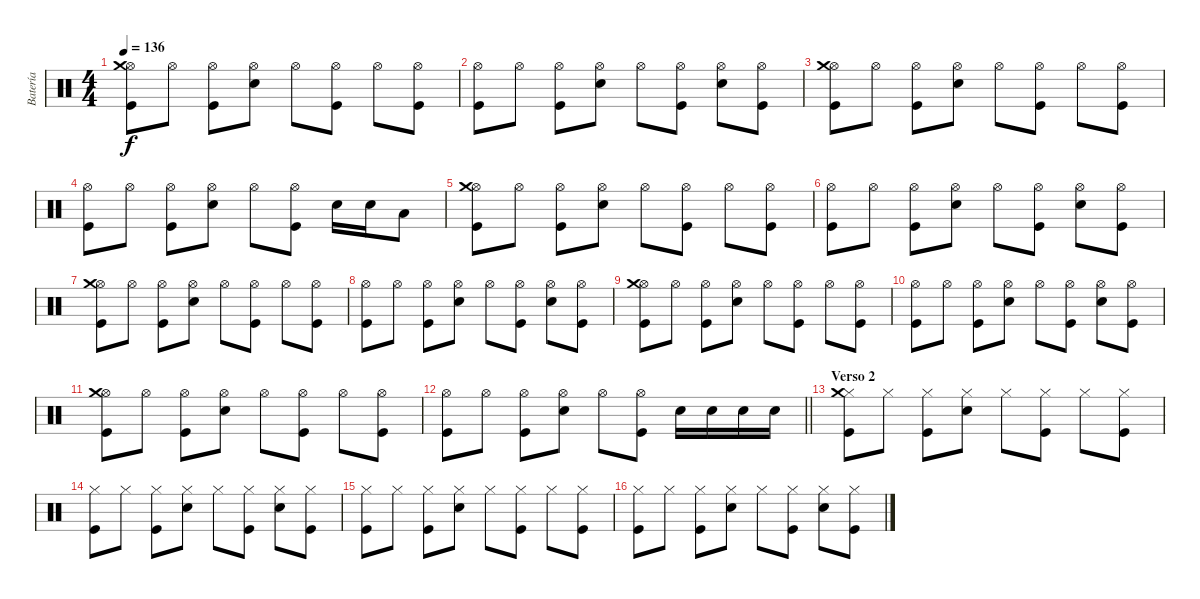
\track ("Batería" "Batería") {instrument percussion}
\staff {score}
\articulation defaults
\ts (4 4)
\tempo 136
\clef neutral
\ks c
("Hi-Hat (open)" "Crash medium (hit)" "Kick (hit)").8{dy f} "Hi-Hat (open)".8 ("Hi-Hat (open)" "Kick (hit)").8 ("Hi-Hat (open)" "Snare (hit) 2").8 "Hi-Hat (open)".8 ("Hi-Hat (open)" "Kick (hit)").8 "Hi-Hat (open)".8 ("Hi-Hat (open)" "Kick (hit)").8 |
("Hi-Hat (open)" "Kick (hit)").8 "Hi-Hat (open)".8 ("Hi-Hat (open)" "Kick (hit)").8 ("Hi-Hat (open)" "Snare (hit) 2").8 "Hi-Hat (open)".8 ("Hi-Hat (open)" "Kick (hit)").8 ("Hi-Hat (open)" "Snare (hit) 2").8 ("Hi-Hat (open)" "Kick (hit)").8 |
("Hi-Hat (open)" "Crash medium (hit)" "Kick (hit)").8 "Hi-Hat (open)".8 ("Hi-Hat (open)" "Kick (hit)").8 ("Hi-Hat (open)" "Snare (hit) 2").8 "Hi-Hat (open)".8 ("Hi-Hat (open)" "Kick (hit)").8 "Hi-Hat (open)".8 ("Hi-Hat (open)" "Kick (hit)").8 |
("Hi-Hat (open)" "Kick (hit)").8 "Hi-Hat (open)".8 ("Hi-Hat (open)" "Kick (hit)").8 ("Hi-Hat (open)" "Snare (hit) 2").8 "Hi-Hat (open)".8 ("Hi-Hat (open)" "Kick (hit)").8 "Snare (hit) 2".16 "Snare (hit) 2".16 "Low Tom (hit)".8 |
("Hi-Hat (open)" "Crash medium (hit)" "Kick (hit)").8 "Hi-Hat (open)".8 ("Hi-Hat (open)" "Kick (hit)").8 ("Hi-Hat (open)" "Snare (hit) 2").8 "Hi-Hat (open)".8 ("Hi-Hat (open)" "Kick (hit)").8 "Hi-Hat (open)".8 ("Hi-Hat (open)" "Kick (hit)").8 |
("Hi-Hat (open)" "Kick (hit)").8 "Hi-Hat (open)".8 ("Hi-Hat (open)" "Kick (hit)").8 ("Hi-Hat (open)" "Snare (hit) 2").8 "Hi-Hat (open)".8 ("Hi-Hat (open)" "Kick (hit)").8 ("Hi-Hat (open)" "Snare (hit) 2").8 ("Hi-Hat (open)" "Kick (hit)").8 |
("Hi-Hat (open)" "Crash medium (hit)" "Kick (hit)").8 "Hi-Hat (open)".8 ("Hi-Hat (open)" "Kick (hit)").8 ("Hi-Hat (open)" "Snare (hit) 2").8 "Hi-Hat (open)".8 ("Hi-Hat (open)" "Kick (hit)").8 "Hi-Hat (open)".8 ("Hi-Hat (open)" "Kick (hit)").8 |
("Hi-Hat (open)" "Kick (hit)").8 "Hi-Hat (open)".8 ("Hi-Hat (open)" "Kick (hit)").8 ("Hi-Hat (open)" "Snare (hit) 2").8 "Hi-Hat (open)".8 ("Hi-Hat (open)" "Kick (hit)").8 ("Hi-Hat (open)" "Snare (hit) 2").8 ("Hi-Hat (open)" "Kick (hit)").8 |
("Hi-Hat (open)" "Crash medium (hit)" "Kick (hit)").8 "Hi-Hat (open)".8 ("Hi-Hat (open)" "Kick (hit)").8 ("Hi-Hat (open)" "Snare (hit) 2").8 "Hi-Hat (open)".8 ("Hi-Hat (open)" "Kick (hit)").8 "Hi-Hat (open)".8 ("Hi-Hat (open)" "Kick (hit)").8 |
("Hi-Hat (open)" "Kick (hit)").8 "Hi-Hat (open)".8 ("Hi-Hat (open)" "Kick (hit)").8 ("Hi-Hat (open)" "Snare (hit) 2").8 "Hi-Hat (open)".8 ("Hi-Hat (open)" "Kick (hit)").8 ("Hi-Hat (open)" "Snare (hit) 2").8 ("Hi-Hat (open)" "Kick (hit)").8 |
("Hi-Hat (open)" "Crash medium (hit)" "Kick (hit)").8 "Hi-Hat (open)".8 ("Hi-Hat (open)" "Kick (hit)").8 ("Hi-Hat (open)" "Snare (hit) 2").8 "Hi-Hat (open)".8 ("Hi-Hat (open)" "Kick (hit)").8 "Hi-Hat (open)".8 ("Hi-Hat (open)" "Kick (hit)").8 |
\barLineRight lightlight
("Hi-Hat (open)" "Kick (hit)").8 "Hi-Hat (open)".8 ("Hi-Hat (open)" "Kick (hit)").8 ("Hi-Hat (open)" "Snare (hit) 2").8 "Hi-Hat (open)".8 ("Hi-Hat (open)" "Kick (hit)").8 "Snare (hit) 2".16 "Snare (hit) 2".16 "Snare (hit) 2".16 "Snare (hit) 2".16 |
\section ("" "Verso 2")
("Hi-Hat (closed)" "Crash medium (hit)" "Kick (hit)").8 "Hi-Hat (closed)".8 ("Hi-Hat (closed)" "Kick (hit)").8 ("Hi-Hat (closed)" "Snare (hit) 2").8 "Hi-Hat (closed)".8 ("Hi-Hat (closed)" "Kick (hit)").8 "Hi-Hat (closed)".8 ("Hi-Hat (closed)" "Kick (hit)").8 |
("Hi-Hat (closed)" "Kick (hit)").8 "Hi-Hat (closed)".8 ("Hi-Hat (closed)" "Kick (hit)").8 ("Hi-Hat (closed)" "Snare (hit) 2").8 "Hi-Hat (closed)".8 ("Hi-Hat (closed)" "Kick (hit)").8 ("Hi-Hat (closed)" "Snare (hit) 2").8 ("Hi-Hat (closed)" "Kick (hit)").8 |
("Hi-Hat (closed)" "Kick (hit)").8 "Hi-Hat (closed)".8 ("Hi-Hat (closed)" "Kick (hit)").8 ("Hi-Hat (closed)" "Snare (hit) 2").8 "Hi-Hat (closed)".8 ("Hi-Hat (closed)" "Kick (hit)").8 "Hi-Hat (closed)".8 ("Hi-Hat (closed)" "Kick (hit)").8 |
("Hi-Hat (closed)" "Kick (hit)").8 "Hi-Hat (closed)".8 ("Hi-Hat (closed)" "Kick (hit)").8 ("Hi-Hat (closed)" "Snare (hit) 2").8 "Hi-Hat (closed)".8 ("Hi-Hat (closed)" "Kick (hit)").8 ("Hi-Hat (closed)" "Snare (hit) 2").8 ("Hi-Hat (closed)" "Kick (hit)").8
